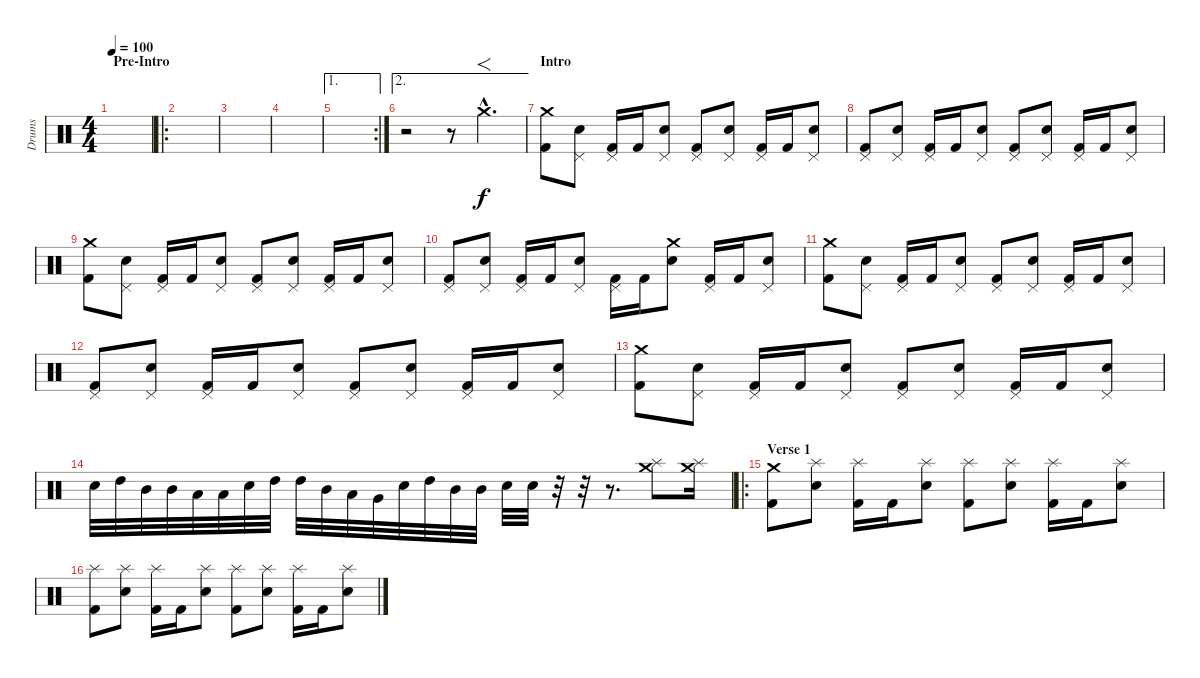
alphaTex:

\track ("Drums" "Drums") {instrument percussion}
\staff {score}
\articulation defaults
\ts (4 4)
\section ("" "Pre-Intro")
\tempo 100
\clef neutral
\ks c
|
\ro
|
|
|
\ae 1
\rc 2
|
\ae 2
r.2 r.8{volume 0} "Crash medium (hit)"{hac}.4{f d volume 16} |
\section ("" "Intro")
("Crash medium (hit)" "Kick (hit) 2").8{dy f volume 11} ("Pedal Hi-Hat (hit)" "Electric Snare (hit)").8 ("Pedal Hi-Hat (hit)" "Kick (hit) 2").16 "Kick (hit) 2".16 ("Pedal Hi-Hat (hit)" "Electric Snare (hit)").8 ("Pedal Hi-Hat (hit)" "Kick (hit) 2").8 ("Pedal Hi-Hat (hit)" "Electric Snare (hit)").8 ("Pedal Hi-Hat (hit)" "Kick (hit) 2").16 "Kick (hit) 2".16 ("Pedal Hi-Hat (hit)" "Electric Snare (hit)").8 |
("Pedal Hi-Hat (hit)" "Kick (hit) 2").8 ("Pedal Hi-Hat (hit)" "Electric Snare (hit)").8 ("Pedal Hi-Hat (hit)" "Kick (hit) 2").16 "Kick (hit) 2".16 ("Pedal Hi-Hat (hit)" "Electric Snare (hit)").8 ("Pedal Hi-Hat (hit)" "Kick (hit) 2").8 ("Pedal Hi-Hat (hit)" "Electric Snare (hit)").8 ("Pedal Hi-Hat (hit)" "Kick (hit) 2").16 "Kick (hit) 2".16 ("Pedal Hi-Hat (hit)" "Electric Snare (hit)").8 |
("Crash medium (hit)" "Kick (hit) 2").8 ("Pedal Hi-Hat (hit)" "Electric Snare (hit)").8 ("Pedal Hi-Hat (hit)" "Kick (hit) 2").16 "Kick (hit) 2".16 ("Pedal Hi-Hat (hit)" "Electric Snare (hit)").8 ("Pedal Hi-Hat (hit)" "Kick (hit) 2").8 ("Pedal Hi-Hat (hit)" "Electric Snare (hit)").8 ("Pedal Hi-Hat (hit)" "Kick (hit) 2").16 "Kick (hit) 2".16 ("Pedal Hi-Hat (hit)" "Electric Snare (hit)").8 |
("Pedal Hi-Hat (hit)" "Kick (hit) 2").8 ("Pedal Hi-Hat (hit)" "Electric Snare (hit)").8 ("Pedal Hi-Hat (hit)" "Kick (hit) 2").16 "Kick (hit) 2".16 ("Pedal Hi-Hat (hit)" "Electric Snare (hit)").8 ("Pedal Hi-Hat (hit)" "Kick (hit) 2").16 "Kick (hit) 2".16 ("Crash medium (hit)" "Electric Snare (hit)").8 ("Pedal Hi-Hat (hit)" "Kick (hit) 2").16 "Kick (hit) 2".16 ("Pedal Hi-Hat (hit)" "Electric Snare (hit)").8 |
("Crash medium (hit)" "Kick (hit) 2").8 ("Pedal Hi-Hat (hit)" "Electric Snare (hit)").8 ("Pedal Hi-Hat (hit)" "Kick (hit) 2").16 "Kick (hit) 2".16 ("Pedal Hi-Hat (hit)" "Electric Snare (hit)").8 ("Pedal Hi-Hat (hit)" "Kick (hit) 2").8 ("Pedal Hi-Hat (hit)" "Electric Snare (hit)").8 ("Pedal Hi-Hat (hit)" "Kick (hit) 2").16 "Kick (hit) 2".16 ("Pedal Hi-Hat (hit)" "Electric Snare (hit)").8 |
("Pedal Hi-Hat (hit)" "Kick (hit) 2").8 ("Pedal Hi-Hat (hit)" "Electric Snare (hit)").8 ("Pedal Hi-Hat (hit)" "Kick (hit) 2").16 "Kick (hit) 2".16 ("Pedal Hi-Hat (hit)" "Electric Snare (hit)").8 ("Pedal Hi-Hat (hit)" "Kick (hit) 2").8 ("Pedal Hi-Hat (hit)" "Electric Snare (hit)").8 ("Pedal Hi-Hat (hit)" "Kick (hit) 2").16 "Kick (hit) 2".16 ("Pedal Hi-Hat (hit)" "Electric Snare (hit)").8 |
("Crash medium (hit)" "Kick (hit) 2").8 ("Pedal Hi-Hat (hit)" "Electric Snare (hit)").8 ("Pedal Hi-Hat (hit)" "Kick (hit) 2").16 "Kick (hit) 2".16 ("Pedal Hi-Hat (hit)" "Electric Snare (hit)").8 ("Pedal Hi-Hat (hit)" "Kick (hit) 2").8 ("Pedal Hi-Hat (hit)" "Electric Snare (hit)").8 ("Pedal Hi-Hat (hit)" "Kick (hit) 2").16 "Kick (hit) 2".16 ("Pedal Hi-Hat (hit)" "Electric Snare (hit)").8 |
"Electric Snare (hit)".32{volume 12} "High Tom (hit)".32 "Mid Tom (hit)".32 "Mid Tom (hit)".32 "Low Tom (hit)".32 "Low Tom (hit)".32 "Electric Snare (hit)".32 "High Tom (hit)".32 "High Tom (hit)".32 "Mid Tom (hit)".32 "Low Tom (hit)".32 "Very Low Tom (hit)".32 "Electric Snare (hit)".32 "High Tom (hit)".32 "Mid Tom (hit)".32 "Mid Tom (hit)".32 "Electric Snare (hit)".32 "Electric Snare (hit)".32 r.32 r.32 r.8{d} ("Crash medium (hit)" "Splash (hit)").8 ("Crash medium (hit)" "Splash (hit)").16 |
\ro
\section ("" "Verse 1")
("Crash medium (hit)" "Kick (hit) 2").8 ("Splash (hit)" "Electric Snare (hit)").8 ("Splash (hit)" "Kick (hit) 2").16 "Kick (hit) 2".16 ("Splash (hit)" "Electric Snare (hit)").8 ("Splash (hit)" "Kick (hit) 2").8 ("Splash (hit)" "Electric Snare (hit)").8 ("Splash (hit)" "Kick (hit) 2").16 "Kick (hit) 2".16 ("Splash (hit)" "Electric Snare (hit)").8 |
("Splash (hit)" "Kick (hit) 2").8 ("Splash (hit)" "Electric Snare (hit)").8 ("Splash (hit)" "Kick (hit) 2").16 "Kick (hit) 2".16 ("Splash (hit)" "Electric Snare (hit)").8 ("Splash (hit)" "Kick (hit) 2").8 ("Splash (hit)" "Electric Snare (hit)").8 ("Splash (hit)" "Kick (hit) 2").16 "Kick (hit) 2".16 ("Splash (hit)" "Electric Snare (hit)").8
